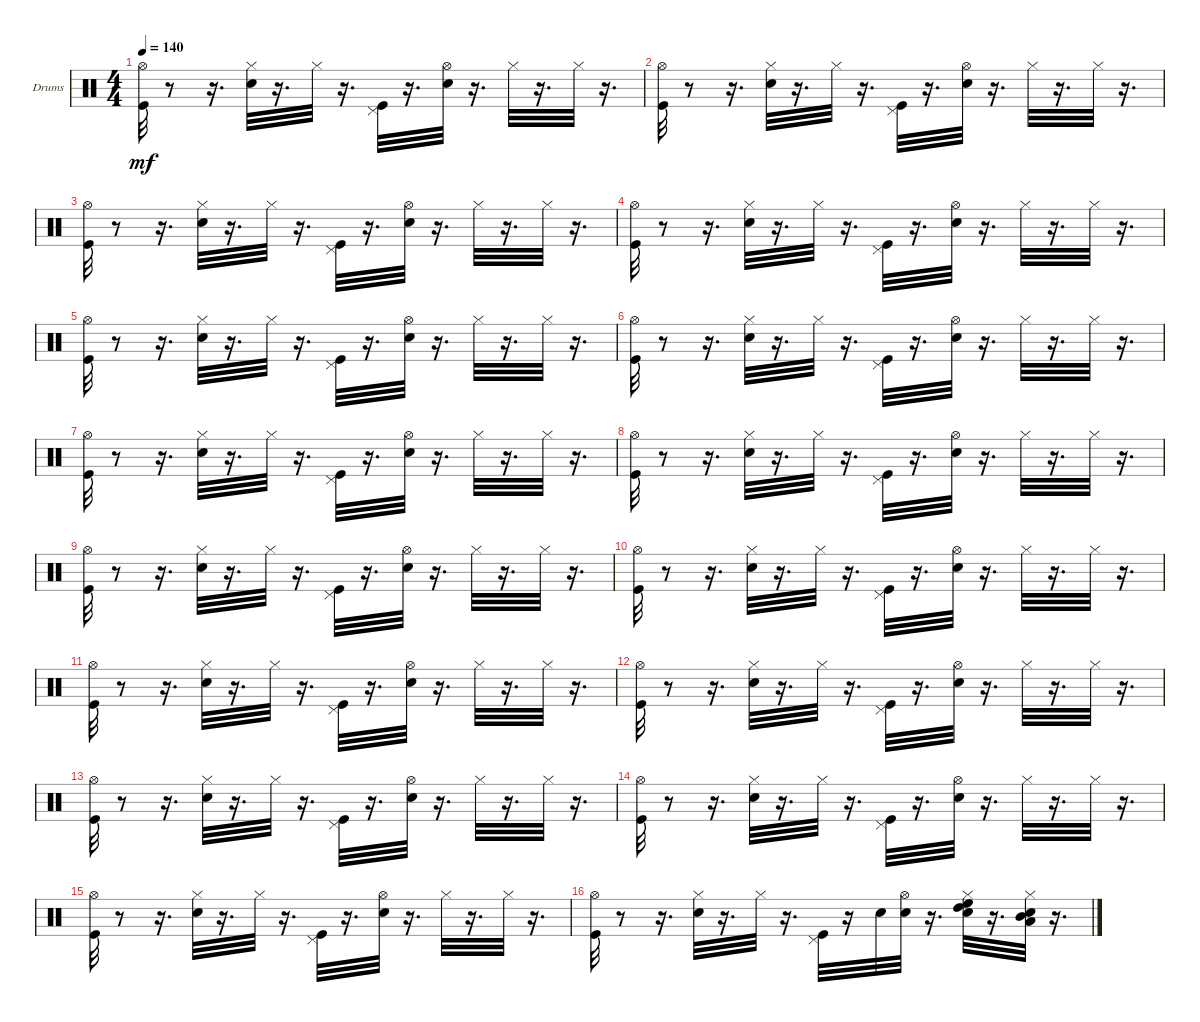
\bracketExtendMode groupsimilarinstruments
\firstSystemTrackNameOrientation horizontal
\otherSystemsTrackNameOrientation horizontal
\track ("" "Drums") {instrument percussion}
\staff {score}
\articulation defaults
\ts (4 4)
\tempo 140
\clef neutral
\ks c
("Hi-Hat (open)" "Kick (hit)").32{dy mf} r.8 r.16{d} ("Hi-Hat (closed)" "Snare (hit) 2").32 r.16{d} "Hi-Hat (closed)".32 r.16{d} ("Pedal Hi-Hat (hit)" "Kick (hit)").32 r.16{d} ("Hi-Hat (open)" "Snare (hit) 2").32 r.16{d} "Hi-Hat (closed)".32 r.16{d} "Hi-Hat (closed)".32 r.16{d} |
("Hi-Hat (open)" "Kick (hit)").32 r.8 r.16{d} ("Hi-Hat (closed)" "Snare (hit) 2").32 r.16{d} "Hi-Hat (closed)".32 r.16{d} ("Pedal Hi-Hat (hit)" "Kick (hit)").32 r.16{d} ("Hi-Hat (open)" "Snare (hit) 2").32 r.16{d} "Hi-Hat (closed)".32 r.16{d} "Hi-Hat (closed)".32 r.16{d} |
("Hi-Hat (open)" "Kick (hit)").32 r.8 r.16{d} ("Hi-Hat (closed)" "Snare (hit) 2").32 r.16{d} "Hi-Hat (closed)".32 r.16{d} ("Pedal Hi-Hat (hit)" "Kick (hit)").32 r.16{d} ("Hi-Hat (open)" "Snare (hit) 2").32 r.16{d} "Hi-Hat (closed)".32 r.16{d} "Hi-Hat (closed)".32 r.16{d} |
("Hi-Hat (open)" "Kick (hit)").32 r.8 r.16{d} ("Hi-Hat (closed)" "Snare (hit) 2").32 r.16{d} "Hi-Hat (closed)".32 r.16{d} ("Pedal Hi-Hat (hit)" "Kick (hit)").32 r.16{d} ("Hi-Hat (open)" "Snare (hit) 2").32 r.16{d} "Hi-Hat (closed)".32 r.16{d} "Hi-Hat (closed)".32 r.16{d} |
("Hi-Hat (open)" "Kick (hit)").32 r.8 r.16{d} ("Hi-Hat (closed)" "Snare (hit) 2").32 r.16{d} "Hi-Hat (closed)".32 r.16{d} ("Pedal Hi-Hat (hit)" "Kick (hit)").32 r.16{d} ("Hi-Hat (open)" "Snare (hit) 2").32 r.16{d} "Hi-Hat (closed)".32 r.16{d} "Hi-Hat (closed)".32 r.16{d} |
("Hi-Hat (open)" "Kick (hit)").32 r.8 r.16{d} ("Hi-Hat (closed)" "Snare (hit) 2").32 r.16{d} "Hi-Hat (closed)".32 r.16{d} ("Pedal Hi-Hat (hit)" "Kick (hit)").32 r.16{d} ("Hi-Hat (open)" "Snare (hit) 2").32 r.16{d} "Hi-Hat (closed)".32 r.16{d} "Hi-Hat (closed)".32 r.16{d} |
("Hi-Hat (open)" "Kick (hit)").32 r.8 r.16{d} ("Hi-Hat (closed)" "Snare (hit) 2").32 r.16{d} "Hi-Hat (closed)".32 r.16{d} ("Pedal Hi-Hat (hit)" "Kick (hit)").32 r.16{d} ("Hi-Hat (open)" "Snare (hit) 2").32 r.16{d} "Hi-Hat (closed)".32 r.16{d} "Hi-Hat (closed)".32 r.16{d} |
("Hi-Hat (open)" "Kick (hit)").32 r.8 r.16{d} ("Hi-Hat (closed)" "Snare (hit) 2").32 r.16{d} "Hi-Hat (closed)".32 r.16{d} ("Pedal Hi-Hat (hit)" "Kick (hit)").32 r.16{d} ("Hi-Hat (open)" "Snare (hit) 2").32 r.16{d} "Hi-Hat (closed)".32 r.16{d} "Hi-Hat (closed)".32 r.16{d} |
("Hi-Hat (open)" "Kick (hit)").32 r.8 r.16{d} ("Hi-Hat (closed)" "Snare (hit) 2").32 r.16{d} "Hi-Hat (closed)".32 r.16{d} ("Pedal Hi-Hat (hit)" "Kick (hit)").32 r.16{d} ("Hi-Hat (open)" "Snare (hit) 2").32 r.16{d} "Hi-Hat (closed)".32 r.16{d} "Hi-Hat (closed)".32 r.16{d} |
("Hi-Hat (open)" "Kick (hit)").32 r.8 r.16{d} ("Hi-Hat (closed)" "Snare (hit) 2").32 r.16{d} "Hi-Hat (closed)".32 r.16{d} ("Pedal Hi-Hat (hit)" "Kick (hit)").32 r.16{d} ("Hi-Hat (open)" "Snare (hit) 2").32 r.16{d} "Hi-Hat (closed)".32 r.16{d} "Hi-Hat (closed)".32 r.16{d} |
("Hi-Hat (open)" "Kick (hit)").32 r.8 r.16{d} ("Hi-Hat (closed)" "Snare (hit) 2").32 r.16{d} "Hi-Hat (closed)".32 r.16{d} ("Pedal Hi-Hat (hit)" "Kick (hit)").32 r.16{d} ("Hi-Hat (open)" "Snare (hit) 2").32 r.16{d} "Hi-Hat (closed)".32 r.16{d} "Hi-Hat (closed)".32 r.16{d} |
("Hi-Hat (open)" "Kick (hit)").32 r.8 r.16{d} ("Hi-Hat (closed)" "Snare (hit) 2").32 r.16{d} "Hi-Hat (closed)".32 r.16{d} ("Pedal Hi-Hat (hit)" "Kick (hit)").32 r.16{d} ("Hi-Hat (open)" "Snare (hit) 2").32 r.16{d} "Hi-Hat (closed)".32 r.16{d} "Hi-Hat (closed)".32 r.16{d} |
("Hi-Hat (open)" "Kick (hit)").32 r.8 r.16{d} ("Hi-Hat (closed)" "Snare (hit) 2").32 r.16{d} "Hi-Hat (closed)".32 r.16{d} ("Pedal Hi-Hat (hit)" "Kick (hit)").32 r.16{d} ("Hi-Hat (open)" "Snare (hit) 2").32 r.16{d} "Hi-Hat (closed)".32 r.16{d} "Hi-Hat (closed)".32 r.16{d} |
("Hi-Hat (open)" "Kick (hit)").32 r.8 r.16{d} ("Hi-Hat (closed)" "Snare (hit) 2").32 r.16{d} "Hi-Hat (closed)".32 r.16{d} ("Pedal Hi-Hat (hit)" "Kick (hit)").32 r.16{d} ("Hi-Hat (open)" "Snare (hit) 2").32 r.16{d} "Hi-Hat (closed)".32 r.16{d} "Hi-Hat (closed)".32 r.16{d} |
("Hi-Hat (open)" "Kick (hit)").32 r.8 r.16{d} ("Hi-Hat (closed)" "Snare (hit) 2").32 r.16{d} "Hi-Hat (closed)".32 r.16{d} ("Pedal Hi-Hat (hit)" "Kick (hit)").32 r.16{d} ("Hi-Hat (open)" "Snare (hit) 2").32 r.16{d} "Hi-Hat (closed)".32 r.16{d} "Hi-Hat (closed)".32 r.16{d} |
("Hi-Hat (open)" "Kick (hit)").32 r.8 r.16{d} ("Hi-Hat (closed)" "Snare (hit) 2").32 r.16{d} "Hi-Hat (closed)".32 r.16{d} ("Pedal Hi-Hat (hit)" "Kick (hit)").32 r.16 "Snare (hit) 2".32 ("Hi-Hat (open)" "Snare (hit) 2").32 r.16{d} ("Snare (hit) 2" "High Tom (hit)" "High Floor Tom (hit)" "Hi-Hat (closed)").32 r.16{d} ("Snare (hit) 2" "Low Tom (hit)" "Mid Tom (hit)" "Hi-Hat (closed)").32 r.16{d}
